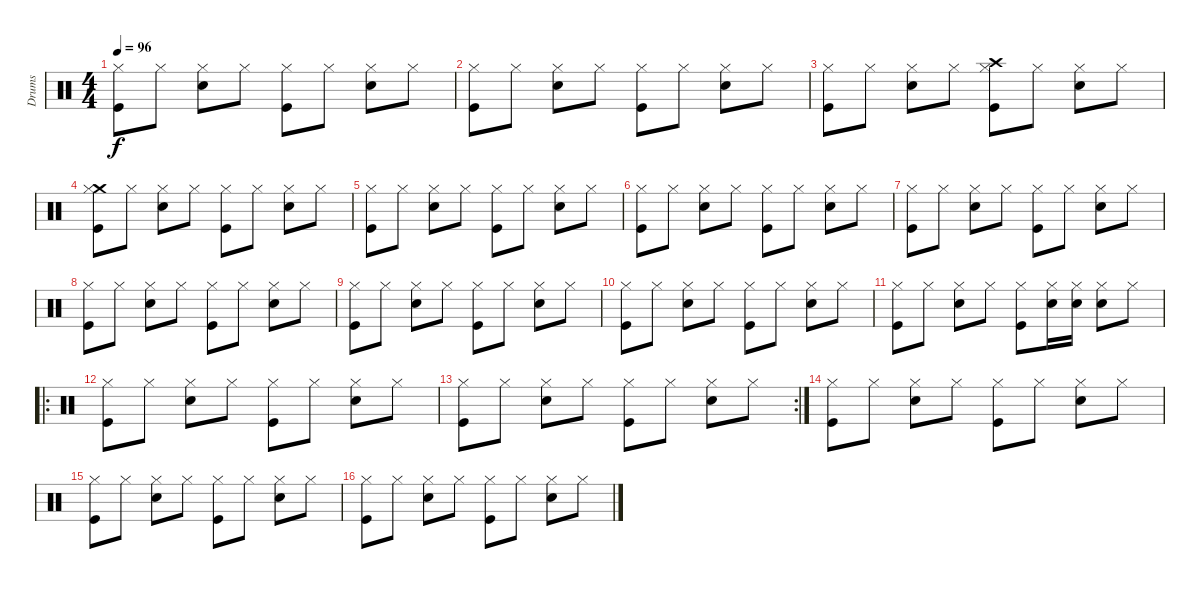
\track ("Drums" "Drums") {instrument percussion}
\staff {score}
\articulation defaults
\ts (4 4)
\tempo 96
\clef neutral
\ks c
("Hi-Hat (closed)" "Kick (hit)").8{dy f} "Hi-Hat (closed)".8 ("Snare (hit) 2" "Hi-Hat (closed)").8 "Hi-Hat (closed)".8 ("Hi-Hat (closed)" "Kick (hit)").8 "Hi-Hat (closed)".8 ("Snare (hit) 2" "Hi-Hat (closed)").8 "Hi-Hat (closed)".8 |
("Hi-Hat (closed)" "Kick (hit)").8 "Hi-Hat (closed)".8 ("Snare (hit) 2" "Hi-Hat (closed)").8 "Hi-Hat (closed)".8 ("Hi-Hat (closed)" "Kick (hit)").8 "Hi-Hat (closed)".8 ("Snare (hit) 2" "Hi-Hat (closed)").8 "Hi-Hat (closed)".8 |
("Hi-Hat (closed)" "Kick (hit)").8 "Hi-Hat (closed)".8 ("Snare (hit) 2" "Hi-Hat (closed)").8 "Hi-Hat (closed)".8 ("Crash high (hit)" "Hi-Hat (closed)" "Kick (hit)").8 "Hi-Hat (closed)".8 ("Snare (hit) 2" "Hi-Hat (closed)").8 "Hi-Hat (closed)".8 |
("Crash medium (hit)" "Hi-Hat (closed)" "Kick (hit)").8 "Hi-Hat (closed)".8 ("Snare (hit) 2" "Hi-Hat (closed)").8 "Hi-Hat (closed)".8 ("Hi-Hat (closed)" "Kick (hit)").8 "Hi-Hat (closed)".8 ("Snare (hit) 2" "Hi-Hat (closed)").8 "Hi-Hat (closed)".8 |
("Hi-Hat (closed)" "Kick (hit)").8 "Hi-Hat (closed)".8 ("Snare (hit) 2" "Hi-Hat (closed)").8 "Hi-Hat (closed)".8 ("Hi-Hat (closed)" "Kick (hit)").8 "Hi-Hat (closed)".8 ("Snare (hit) 2" "Hi-Hat (closed)").8 "Hi-Hat (closed)".8 |
("Hi-Hat (closed)" "Kick (hit)").8 "Hi-Hat (closed)".8 ("Snare (hit) 2" "Hi-Hat (closed)").8 "Hi-Hat (closed)".8 ("Hi-Hat (closed)" "Kick (hit)").8 "Hi-Hat (closed)".8 ("Snare (hit) 2" "Hi-Hat (closed)").8 "Hi-Hat (closed)".8 |
("Hi-Hat (closed)" "Kick (hit)").8 "Hi-Hat (closed)".8 ("Snare (hit) 2" "Hi-Hat (closed)").8 "Hi-Hat (closed)".8 ("Hi-Hat (closed)" "Kick (hit)").8 "Hi-Hat (closed)".8 ("Snare (hit) 2" "Hi-Hat (closed)").8 "Hi-Hat (closed)".8 |
("Hi-Hat (closed)" "Kick (hit)").8 "Hi-Hat (closed)".8 ("Snare (hit) 2" "Hi-Hat (closed)").8 "Hi-Hat (closed)".8 ("Hi-Hat (closed)" "Kick (hit)").8 "Hi-Hat (closed)".8 ("Snare (hit) 2" "Hi-Hat (closed)").8 "Hi-Hat (closed)".8 |
("Hi-Hat (closed)" "Kick (hit)").8 "Hi-Hat (closed)".8 ("Snare (hit) 2" "Hi-Hat (closed)").8 "Hi-Hat (closed)".8 ("Hi-Hat (closed)" "Kick (hit)").8 "Hi-Hat (closed)".8 ("Snare (hit) 2" "Hi-Hat (closed)").8 "Hi-Hat (closed)".8 |
("Hi-Hat (closed)" "Kick (hit)").8 "Hi-Hat (closed)".8 ("Snare (hit) 2" "Hi-Hat (closed)").8 "Hi-Hat (closed)".8 ("Hi-Hat (closed)" "Kick (hit)").8 "Hi-Hat (closed)".8 ("Snare (hit) 2" "Hi-Hat (closed)").8 "Hi-Hat (closed)".8 |
("Hi-Hat (closed)" "Kick (hit)").8 "Hi-Hat (closed)".8 ("Snare (hit) 2" "Hi-Hat (closed)").8 "Hi-Hat (closed)".8 ("Hi-Hat (closed)" "Kick (hit)").8 ("Snare (hit) 2" "Hi-Hat (closed)").16 ("Snare (hit) 2" "Hi-Hat (closed)").16 ("Snare (hit) 2" "Hi-Hat (closed)").8 "Hi-Hat (closed)".8 |
\ro
("Hi-Hat (closed)" "Kick (hit)").8 "Hi-Hat (closed)".8 ("Snare (hit) 2" "Hi-Hat (closed)").8 "Hi-Hat (closed)".8 ("Hi-Hat (closed)" "Kick (hit)").8 "Hi-Hat (closed)".8 ("Snare (hit) 2" "Hi-Hat (closed)").8 "Hi-Hat (closed)".8 |
\rc 2
("Hi-Hat (closed)" "Kick (hit)").8 "Hi-Hat (closed)".8 ("Snare (hit) 2" "Hi-Hat (closed)").8 "Hi-Hat (closed)".8 ("Hi-Hat (closed)" "Kick (hit)").8 "Hi-Hat (closed)".8 ("Snare (hit) 2" "Hi-Hat (closed)").8 "Hi-Hat (closed)".8 |
("Hi-Hat (closed)" "Kick (hit)").8 "Hi-Hat (closed)".8 ("Snare (hit) 2" "Hi-Hat (closed)").8 "Hi-Hat (closed)".8 ("Hi-Hat (closed)" "Kick (hit)").8 "Hi-Hat (closed)".8 ("Snare (hit) 2" "Hi-Hat (closed)").8 "Hi-Hat (closed)".8 |
("Hi-Hat (closed)" "Kick (hit)").8 "Hi-Hat (closed)".8 ("Snare (hit) 2" "Hi-Hat (closed)").8 "Hi-Hat (closed)".8 ("Hi-Hat (closed)" "Kick (hit)").8 "Hi-Hat (closed)".8 ("Snare (hit) 2" "Hi-Hat (closed)").8 "Hi-Hat (closed)".8 |
("Hi-Hat (closed)" "Kick (hit)").8 "Hi-Hat (closed)".8 ("Snare (hit) 2" "Hi-Hat (closed)").8 "Hi-Hat (closed)".8 ("Hi-Hat (closed)" "Kick (hit)").8 "Hi-Hat (closed)".8 ("Snare (hit) 2" "Hi-Hat (closed)").8 "Hi-Hat (closed)".8
